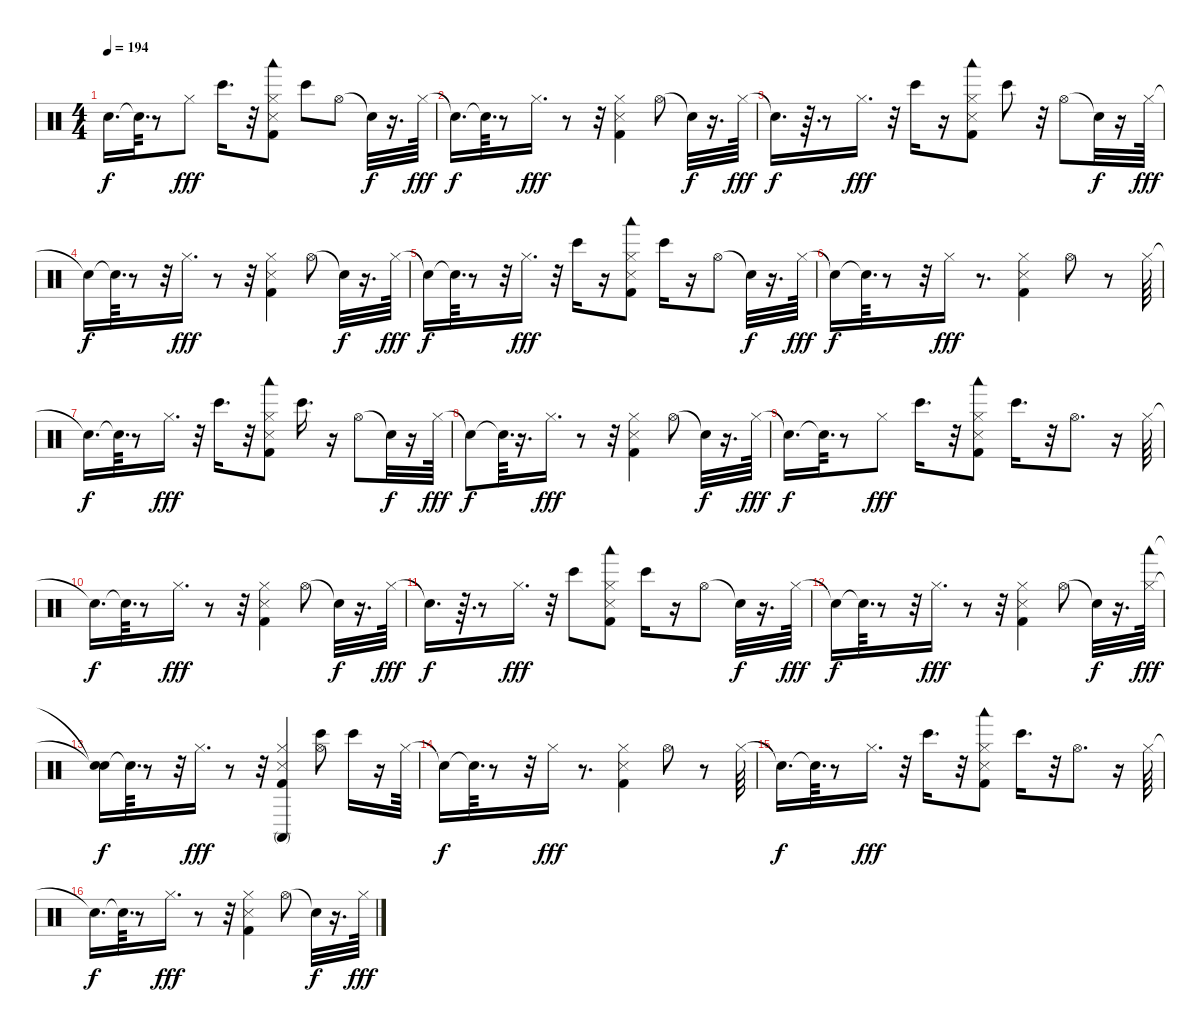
\track "" {instrument percussion}
\staff {score}
\articulation defaults
\ts (4 4)
\tempo 194
\clef neutral
\ks c "Snare (hit)"{t}.16{d dy f} "Snare (hit)"{t}.64{d}
r.8 "Hi-Hat (closed)".8{dy fff} "Bongo High (hit)".16{d} r.32 ("Hi-Hat (closed)" "Snare (side stick) 3" "Kick (hit) 2" "Woodblock low (hit)").8 "Bongo High (hit)".8 "Hi-Hat (open)".8 "Snare (hit)"{t}.32{dy f} r.16{d} "Hi-Hat (closed)".64{dy fff} |
"Snare (hit)"{t}.16{d dy f} "Snare (hit)"{t}.64{d} r.8 "Hi-Hat (closed)".16{d dy fff} r.8 r.32 ("Snare (side stick) 3" "Kick (hit) 2" "Hi-Hat (closed)").4 "Hi-Hat (open)".8 "Snare (hit)"{t}.32{dy f} r.16{d} "Hi-Hat (closed)".64{dy fff} |
"Snare (hit)"{t}.16{d dy f} r.64{d} r.8 "Hi-Hat (closed)".16{d dy fff} r.32 "Bongo High (hit)".16 r.16 ("Snare (side stick) 3" "Kick (hit) 2" "Hi-Hat (closed)" "Woodblock low (hit)").8 "Bongo High (hit)".8 r.32 "Hi-Hat (open)".8 "Snare (hit)"{t}.32{dy f} r.16 "Hi-Hat (closed)".64{dy fff} |
"Snare (hit)"{t}.16{dy f} "Snare (hit)"{t}.64{d} r.8 r.32 "Hi-Hat (closed)".16{d dy fff} r.8 r.32 ("Kick (hit) 2" "Snare (side stick) 3" "Hi-Hat (closed)").4 "Hi-Hat (open)".8 "Snare (hit)"{t}.32{dy f} r.16{d} "Hi-Hat (closed)".64{dy fff} |
"Snare (hit)"{t}.16{dy f} "Snare (hit)"{t}.64{d} r.8 r.32 "Hi-Hat (closed)".16{d dy fff} r.32 "Bongo High (hit)".16 r.16 ("Kick (hit) 2" "Hi-Hat (closed)" "Snare (side stick) 3" "Woodblock low (hit)").8 "Bongo High (hit)".16 r.16 "Hi-Hat (open)".8 "Snare (hit)"{t}.32{dy f} r.16{d} "Hi-Hat (closed)".64{dy fff} |
"Snare (hit)"{t}.16{dy f} "Snare (hit)"{t}.64{d} r.8 r.32 "Hi-Hat (closed)".16{dy fff} r.8{d} ("Kick (hit) 2" "Snare (side stick) 3" "Hi-Hat (closed)").4 "Hi-Hat (open)".8 r.8 "Hi-Hat (closed)".64 |
"Snare (hit)"{t}.16{d dy f} "Snare (hit)"{t}.64{d} r.8 "Hi-Hat (closed)".16{d dy fff} r.32 "Bongo High (hit)".16{d} r.32 ("Woodblock low (hit)" "Kick (hit) 2" "Snare (side stick) 3" "Hi-Hat (closed)").8 "Bongo High (hit)".16{d} r.16 "Hi-Hat (open)".8 "Snare (hit)"{t}.32{dy f} r.16 "Hi-Hat (closed)".64{dy fff} |
"Snare (hit)"{t}.8{dy f} "Snare (hit)"{t}.64{d} r.16{d} "Hi-Hat (closed)".16{d dy fff} r.8 r.32 ("Kick (hit) 2" "Snare (side stick) 3" "Hi-Hat (closed)").4 "Hi-Hat (open)".8 "Snare (hit)"{t}.32{dy f} r.16{d} "Hi-Hat (closed)".64{dy fff} |
"Snare (hit)"{t}.16{d dy f} "Snare (hit)"{t}.64{d} r.8 "Hi-Hat (closed)".8{dy fff} "Bongo High (hit)".16{d} r.32 ("Kick (hit) 2" "Hi-Hat (closed)" "Snare (side stick) 3" "Woodblock low (hit)").8 "Bongo High (hit)".16{d} r.32 "Hi-Hat (open)".8{d} r.16 "Hi-Hat (closed)".64 |
"Snare (hit)"{t}.16{d dy f} "Snare (hit)"{t}.64{d} r.8 "Hi-Hat (closed)".16{d dy fff} r.8 r.32 ("Kick (hit) 2" "Snare (side stick) 3" "Hi-Hat (closed)").4 "Hi-Hat (open)".8 "Snare (hit)"{t}.32{dy f} r.16{d} "Hi-Hat (closed)".64{dy fff} |
"Snare (hit)"{t}.16{d dy f} r.64{d} r.8 "Hi-Hat (closed)".16{d dy fff} r.32 "Bongo High (hit)".8 ("Kick (hit) 2" "Snare (side stick) 3" "Hi-Hat (closed)" "Woodblock low (hit)").8 "Bongo High (hit)".16 r.16 "Hi-Hat (open)".8 "Snare (hit)"{t}.32{dy f} r.16{d} "Hi-Hat (closed)".64{dy fff} |
"Snare (hit)"{t}.16{dy f} "Snare (hit)"{t}.64{d} r.8 r.32 "Hi-Hat (closed)".16{d dy fff} r.8 r.32 ("Kick (hit) 2" "Snare (side stick) 3" "Hi-Hat (closed)").4 "Hi-Hat (open)".8 "Snare (hit)"{t}.32{dy f} r.16{d} ("Hi-Hat (closed)" "Woodblock low (hit)").64{dy fff} |
("Snare (hit)"{t} "Snare (hit)"{t}).16{dy f} "Snare (hit)"{t}.64{d} r.8 r.32 "Hi-Hat (closed)".16{d dy fff} r.8 r.32 ("Kick (hit) 2" "Hi-Hat (closed)" "Snare (side stick) 3" "Conga high (mute)").4 ("Hi-Hat (open)" "Bongo High (hit)").8 "Bongo High (hit)".16 r.16 "Hi-Hat (closed)".64 |
"Snare (hit)"{t}.16{dy f} "Snare (hit)"{t}.64{d} r.8 r.32 "Hi-Hat (closed)".16{dy fff} r.8{d} ("Snare (side stick) 3" "Kick (hit) 2" "Hi-Hat (closed)").4 "Hi-Hat (open)".8 r.8 "Hi-Hat (closed)".64 |
"Snare (hit)"{t}.16{d dy f} "Snare (hit)"{t}.64{d} r.8 "Hi-Hat (closed)".16{d dy fff} r.32 "Bongo High (hit)".16{d} r.32 ("Snare (side stick) 3" "Kick (hit) 2" "Hi-Hat (closed)" "Woodblock low (hit)").8 "Bongo High (hit)".16{d} r.32 "Hi-Hat (open)".8{d} r.16 "Hi-Hat (closed)".64 |
"Snare (hit)"{t}.16{d dy f} "Snare (hit)"{t}.64{d} r.8 "Hi-Hat (closed)".16{d dy fff} r.8 r.32 ("Snare (side stick) 3" "Kick (hit) 2" "Hi-Hat (closed)").4 "Hi-Hat (open)".8 "Snare (hit)"{t}.32{dy f} r.16{d} "Hi-Hat (closed)".64{dy fff}
